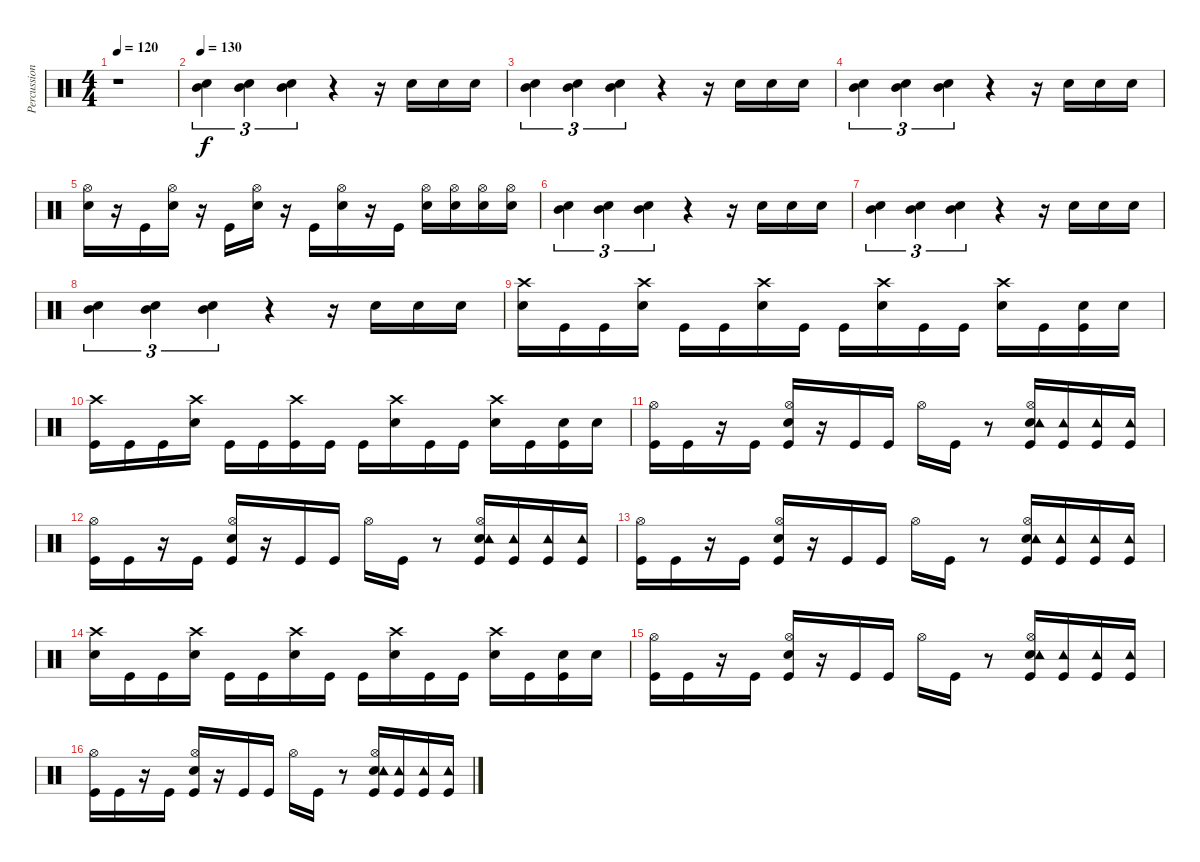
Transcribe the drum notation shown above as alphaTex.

\track ("Percussion" "Percussion") {instrument percussion}
\staff {score}
\articulation defaults
\ts (4 4)
\tempo 120
\clef neutral
\ks c
r.1{dy f} |
\tempo 130
("Snare (hit) 2" "Mid Tom (hit)").4{tu (3 2)} ("Snare (hit) 2" "Mid Tom (hit)").4{tu (3 2)} ("Snare (hit) 2" "Mid Tom (hit)").4{tu (3 2)} r.4 r.16 "Snare (hit) 2".16 "Snare (hit) 2".16 "Snare (hit) 2".16 |
("Snare (hit) 2" "Mid Tom (hit)").4{tu (3 2)} ("Snare (hit) 2" "Mid Tom (hit)").4{tu (3 2)} ("Snare (hit) 2" "Mid Tom (hit)").4{tu (3 2)} r.4 r.16 "Snare (hit) 2".16 "Snare (hit) 2".16 "Snare (hit) 2".16 |
("Snare (hit) 2" "Mid Tom (hit)").4{tu (3 2)} ("Snare (hit) 2" "Mid Tom (hit)").4{tu (3 2)} ("Snare (hit) 2" "Mid Tom (hit)").4{tu (3 2)} r.4 r.16 "Snare (hit) 2".16 "Snare (hit) 2".16 "Snare (hit) 2".16 |
("Snare (hit) 2" "Hi-Hat (open)").16 r.16 "Kick (hit)".16 ("Snare (hit) 2" "Hi-Hat (open)").16 r.16 "Kick (hit)".16 ("Snare (hit) 2" "Hi-Hat (open)").16 r.16 "Kick (hit)".16 ("Snare (hit) 2" "Hi-Hat (open)").16 r.16 "Kick (hit)".16 ("Snare (hit) 2" "Hi-Hat (open)").16 ("Snare (hit) 2" "Hi-Hat (open)").16 ("Snare (hit) 2" "Hi-Hat (open)").16 ("Snare (hit) 2" "Hi-Hat (open)").16 |
("Snare (hit) 2" "Mid Tom (hit)").4{tu (3 2)} ("Snare (hit) 2" "Mid Tom (hit)").4{tu (3 2)} ("Snare (hit) 2" "Mid Tom (hit)").4{tu (3 2)} r.4 r.16 "Snare (hit) 2".16 "Snare (hit) 2".16 "Snare (hit) 2".16 |
("Snare (hit) 2" "Mid Tom (hit)").4{tu (3 2)} ("Snare (hit) 2" "Mid Tom (hit)").4{tu (3 2)} ("Snare (hit) 2" "Mid Tom (hit)").4{tu (3 2)} r.4 r.16 "Snare (hit) 2".16 "Snare (hit) 2".16 "Snare (hit) 2".16 |
("Snare (hit) 2" "Mid Tom (hit)").4{tu (3 2)} ("Snare (hit) 2" "Mid Tom (hit)").4{tu (3 2)} ("Snare (hit) 2" "Mid Tom (hit)").4{tu (3 2)} r.4 r.16 "Snare (hit) 2".16 "Snare (hit) 2".16 "Snare (hit) 2".16 |
("Snare (hit) 2" "Crash high (hit)").16 "Kick (hit)".16 "Kick (hit)".16 ("Snare (hit) 2" "Crash high (hit)").16 "Kick (hit)".16 "Kick (hit)".16 ("Snare (hit) 2" "Crash high (hit)").16 "Kick (hit)".16 "Kick (hit)".16 ("Snare (hit) 2" "Crash high (hit)").16 "Kick (hit)".16 "Kick (hit)".16 ("Snare (hit) 2" "Crash high (hit)").16 "Kick (hit)".16 ("Snare (hit) 2" "Kick (hit)").16 "Snare (hit) 2".16 |
("Kick (hit)" "Crash high (hit)").16 "Kick (hit)".16 "Kick (hit)".16 ("Snare (hit) 2" "Crash high (hit)").16 "Kick (hit)".16 "Kick (hit)".16 ("Kick (hit)" "Crash high (hit)").16 "Kick (hit)".16 "Kick (hit)".16 ("Snare (hit) 2" "Crash high (hit)").16 "Kick (hit)".16 "Kick (hit)".16 ("Snare (hit) 2" "Crash high (hit)").16 "Kick (hit)".16 ("Snare (hit) 2" "Kick (hit)").16 "Snare (hit) 2".16 |
("Hi-Hat (open)" "Kick (hit)").16 "Kick (hit)".16 r.16 "Kick (hit)".16 ("Hi-Hat (open)" "Snare (hit) 2" "Kick (hit)").16 r.16 "Kick (hit)".16 "Kick (hit)".16 "Hi-Hat (open)".16 "Kick (hit)".16 r.8 ("Hi-Hat (open)" "Snare (hit) 2" "Kick (hit)" "Tambourine (hit)").16 ("Kick (hit)" "Tambourine (hit)").16 ("Kick (hit)" "Tambourine (hit)").16 ("Kick (hit)" "Tambourine (hit)").16 |
("Hi-Hat (open)" "Kick (hit)").16 "Kick (hit)".16 r.16 "Kick (hit)".16 ("Hi-Hat (open)" "Snare (hit) 2" "Kick (hit)").16 r.16 "Kick (hit)".16 "Kick (hit)".16 "Hi-Hat (open)".16 "Kick (hit)".16 r.8 ("Hi-Hat (open)" "Snare (hit) 2" "Kick (hit)" "Tambourine (hit)").16 ("Kick (hit)" "Tambourine (hit)").16 ("Kick (hit)" "Tambourine (hit)").16 ("Kick (hit)" "Tambourine (hit)").16 |
("Hi-Hat (open)" "Kick (hit)").16 "Kick (hit)".16 r.16 "Kick (hit)".16 ("Hi-Hat (open)" "Snare (hit) 2" "Kick (hit)").16 r.16 "Kick (hit)".16 "Kick (hit)".16 "Hi-Hat (open)".16 "Kick (hit)".16 r.8 ("Hi-Hat (open)" "Snare (hit) 2" "Kick (hit)" "Tambourine (hit)").16 ("Kick (hit)" "Tambourine (hit)").16 ("Kick (hit)" "Tambourine (hit)").16 ("Kick (hit)" "Tambourine (hit)").16 |
("Snare (hit) 2" "Crash high (hit)").16 "Kick (hit)".16 "Kick (hit)".16 ("Snare (hit) 2" "Crash high (hit)").16 "Kick (hit)".16 "Kick (hit)".16 ("Snare (hit) 2" "Crash high (hit)").16 "Kick (hit)".16 "Kick (hit)".16 ("Snare (hit) 2" "Crash high (hit)").16 "Kick (hit)".16 "Kick (hit)".16 ("Snare (hit) 2" "Crash high (hit)").16 "Kick (hit)".16 ("Snare (hit) 2" "Kick (hit)").16 "Snare (hit) 2".16 |
("Hi-Hat (open)" "Kick (hit)").16 "Kick (hit)".16 r.16 "Kick (hit)".16 ("Hi-Hat (open)" "Snare (hit) 2" "Kick (hit)").16 r.16 "Kick (hit)".16 "Kick (hit)".16 "Hi-Hat (open)".16 "Kick (hit)".16 r.8 ("Hi-Hat (open)" "Snare (hit) 2" "Kick (hit)" "Tambourine (hit)").16 ("Kick (hit)" "Tambourine (hit)").16 ("Kick (hit)" "Tambourine (hit)").16 ("Kick (hit)" "Tambourine (hit)").16 |
("Hi-Hat (open)" "Kick (hit)").16 "Kick (hit)".16 r.16 "Kick (hit)".16 ("Hi-Hat (open)" "Snare (hit) 2" "Kick (hit)").16 r.16 "Kick (hit)".16 "Kick (hit)".16 "Hi-Hat (open)".16 "Kick (hit)".16 r.8 ("Hi-Hat (open)" "Snare (hit) 2" "Kick (hit)" "Tambourine (hit)").16 ("Kick (hit)" "Tambourine (hit)").16 ("Kick (hit)" "Tambourine (hit)").16 ("Kick (hit)" "Tambourine (hit)").16
